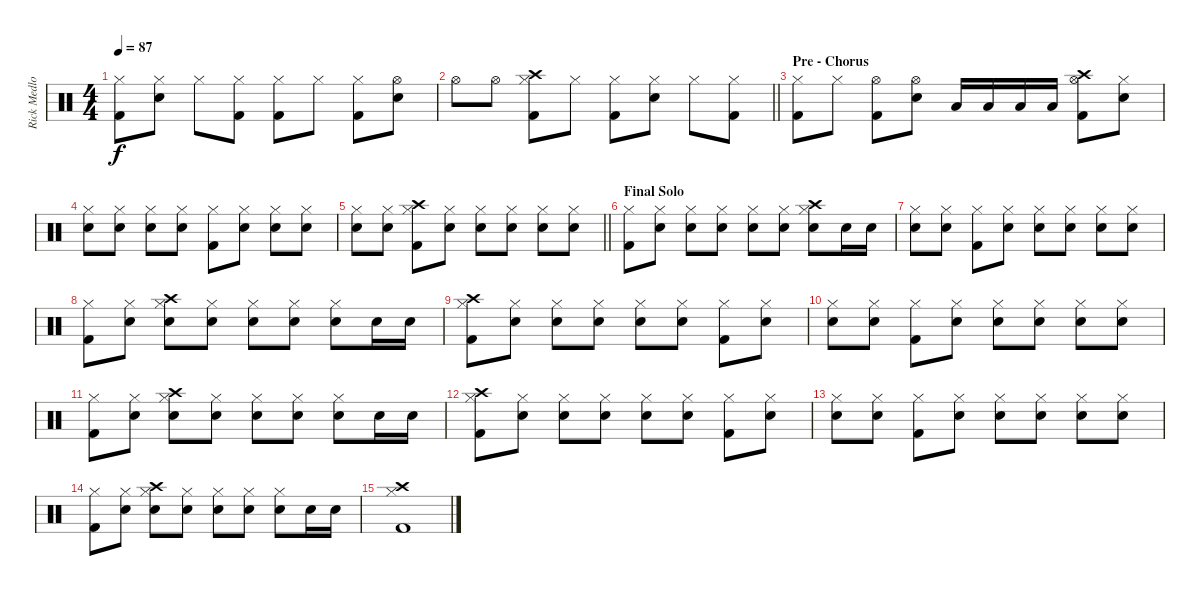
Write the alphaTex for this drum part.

\track ("Rick Medlocke" "Rick Medlo") {instrument percussion}
\staff {score}
\articulation defaults
\ts (4 4)
\tempo 87
\clef neutral
\ks c
("Hi-Hat (closed)" "Kick (hit) 2").8{dy f} ("Hi-Hat (closed)" "Electric Snare (hit)").8 "Hi-Hat (closed)".8 ("Hi-Hat (closed)" "Kick (hit) 2").8 ("Hi-Hat (closed)" "Kick (hit) 2").8 "Hi-Hat (closed)".8 ("Hi-Hat (closed)" "Kick (hit) 2").8 ("Hi-Hat (open)" "Electric Snare (hit)").8 |
\barLineRight lightlight "Hi-Hat (open)".8 "Hi-Hat (open)".8
("Crash high (hit)" "Hi-Hat (closed)" "Kick (hit) 2").8 "Hi-Hat (closed)".8 ("Hi-Hat (closed)" "Kick (hit) 2").8 ("Hi-Hat (closed)" "Electric Snare (hit)").8 "Hi-Hat (closed)".8 ("Hi-Hat (closed)" "Kick (hit) 2").8 |
\section ("" "Pre - Chorus")
("Hi-Hat (closed)" "Kick (hit) 2").8 "Hi-Hat (closed)".8 ("Hi-Hat (open)" "Kick (hit) 2").8 ("Hi-Hat (open)" "Electric Snare (hit)").8 "Low Tom (hit)".16 "Low Tom (hit)".16 "Low Tom (hit)".16 "Low Tom (hit)".16 ("Crash high (hit)" "Hi-Hat (open)" "Kick (hit) 2").8 ("Hi-Hat (closed)" "Electric Snare (hit)").8 |
("Hi-Hat (closed)" "Electric Snare (hit)").8 ("Hi-Hat (closed)" "Snare (hit) 2").8 ("Hi-Hat (closed)" "Electric Snare (hit)").8 ("Hi-Hat (closed)" "Electric Snare (hit)").8 ("Hi-Hat (closed)" "Kick (hit) 2").8 ("Hi-Hat (closed)" "Electric Snare (hit)").8 ("Hi-Hat (closed)" "Electric Snare (hit)").8 ("Hi-Hat (closed)" "Snare (hit) 2").8 |
\barLineRight lightlight
("Hi-Hat (closed)" "Electric Snare (hit)").8 ("Hi-Hat (closed)" "Electric Snare (hit)").8 ("Crash high (hit)" "Hi-Hat (closed)" "Kick (hit) 2").8 ("Hi-Hat (closed)" "Electric Snare (hit)").8 ("Hi-Hat (closed)" "Electric Snare (hit)").8 ("Hi-Hat (closed)" "Snare (hit) 2").8 ("Hi-Hat (closed)" "Electric Snare (hit)").8 ("Hi-Hat (closed)" "Electric Snare (hit)").8 |
\section ("" "Final Solo")
("Hi-Hat (closed)" "Kick (hit) 2").8 ("Hi-Hat (closed)" "Electric Snare (hit)").8 ("Hi-Hat (closed)" "Electric Snare (hit)").8 ("Hi-Hat (closed)" "Snare (hit) 2").8 ("Hi-Hat (closed)" "Electric Snare (hit)").8 ("Hi-Hat (closed)" "Electric Snare (hit)").8 ("Crash high (hit)" "Hi-Hat (closed)" "Snare (hit) 2").8 "Electric Snare (hit)".16 "Electric Snare (hit)".16 |
("Hi-Hat (closed)" "Electric Snare (hit)").8 ("Hi-Hat (closed)" "Electric Snare (hit)").8 ("Hi-Hat (closed)" "Kick (hit) 2").8 ("Hi-Hat (closed)" "Electric Snare (hit)").8 ("Hi-Hat (closed)" "Electric Snare (hit)").8 ("Hi-Hat (closed)" "Snare (hit) 2").8 ("Hi-Hat (closed)" "Electric Snare (hit)").8 ("Hi-Hat (closed)" "Electric Snare (hit)").8 |
("Hi-Hat (closed)" "Kick (hit) 2").8 ("Hi-Hat (closed)" "Electric Snare (hit)").8 ("Crash high (hit)" "Hi-Hat (closed)" "Electric Snare (hit)").8 ("Hi-Hat (closed)" "Snare (hit) 2").8 ("Hi-Hat (closed)" "Electric Snare (hit)").8 ("Hi-Hat (closed)" "Electric Snare (hit)").8 ("Hi-Hat (closed)" "Snare (hit) 2").8 "Electric Snare (hit)".16 "Electric Snare (hit)".16 |
("Crash high (hit)" "Hi-Hat (closed)" "Kick (hit) 2").8 ("Hi-Hat (closed)" "Electric Snare (hit)").8 ("Hi-Hat (closed)" "Electric Snare (hit)").8 ("Hi-Hat (closed)" "Snare (hit) 2").8 ("Hi-Hat (closed)" "Electric Snare (hit)").8 ("Hi-Hat (closed)" "Electric Snare (hit)").8 ("Hi-Hat (closed)" "Kick (hit) 2").8 ("Hi-Hat (closed)" "Electric Snare (hit)").8 |
("Hi-Hat (closed)" "Electric Snare (hit)").8 ("Hi-Hat (closed)" "Electric Snare (hit)").8 ("Hi-Hat (closed)" "Kick (hit) 2").8 ("Hi-Hat (closed)" "Electric Snare (hit)").8 ("Hi-Hat (closed)" "Electric Snare (hit)").8 ("Hi-Hat (closed)" "Snare (hit) 2").8 ("Hi-Hat (closed)" "Electric Snare (hit)").8 ("Hi-Hat (closed)" "Electric Snare (hit)").8 |
("Hi-Hat (closed)" "Kick (hit) 2").8 ("Hi-Hat (closed)" "Electric Snare (hit)").8 ("Crash high (hit)" "Hi-Hat (closed)" "Electric Snare (hit)").8 ("Hi-Hat (closed)" "Snare (hit) 2").8 ("Hi-Hat (closed)" "Electric Snare (hit)").8 ("Hi-Hat (closed)" "Electric Snare (hit)").8 ("Hi-Hat (closed)" "Snare (hit) 2").8 "Electric Snare (hit)".16 "Electric Snare (hit)".16 |
("Crash high (hit)" "Hi-Hat (closed)" "Kick (hit) 2").8 ("Hi-Hat (closed)" "Electric Snare (hit)").8 ("Hi-Hat (closed)" "Electric Snare (hit)").8 ("Hi-Hat (closed)" "Snare (hit) 2").8 ("Hi-Hat (closed)" "Electric Snare (hit)").8 ("Hi-Hat (closed)" "Electric Snare (hit)").8 ("Hi-Hat (closed)" "Kick (hit) 2").8 ("Hi-Hat (closed)" "Electric Snare (hit)").8 |
("Hi-Hat (closed)" "Electric Snare (hit)").8 ("Hi-Hat (closed)" "Electric Snare (hit)").8 ("Hi-Hat (closed)" "Kick (hit) 2").8 ("Hi-Hat (closed)" "Electric Snare (hit)").8 ("Hi-Hat (closed)" "Electric Snare (hit)").8 ("Hi-Hat (closed)" "Snare (hit) 2").8 ("Hi-Hat (closed)" "Electric Snare (hit)").8 ("Hi-Hat (closed)" "Electric Snare (hit)").8 |
("Hi-Hat (closed)" "Kick (hit) 2").8 ("Hi-Hat (closed)" "Electric Snare (hit)").8 ("Crash high (hit)" "Hi-Hat (closed)" "Electric Snare (hit)").8 ("Hi-Hat (closed)" "Snare (hit) 2").8 ("Hi-Hat (closed)" "Electric Snare (hit)").8 ("Hi-Hat (closed)" "Electric Snare (hit)").8 ("Hi-Hat (closed)" "Snare (hit) 2").8 "Electric Snare (hit)".16 "Electric Snare (hit)".16 |
("Crash high (hit)" "Hi-Hat (closed)" "Kick (hit) 2").1
